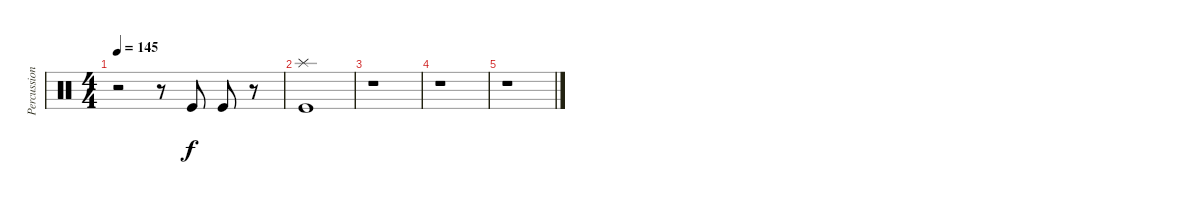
\track ("Percussion" "Percussion") {instrument percussion}
\staff {score}
\articulation defaults
\ts (4 4)
\tempo 145
\clef neutral
\ks c
r.2{dy f} r.8 "Kick (hit)".8 "Kick (hit)".8 r.8 |
("Splash (hit)" "Kick (hit)").1 |
r.1 |
r.1 |
r.1
